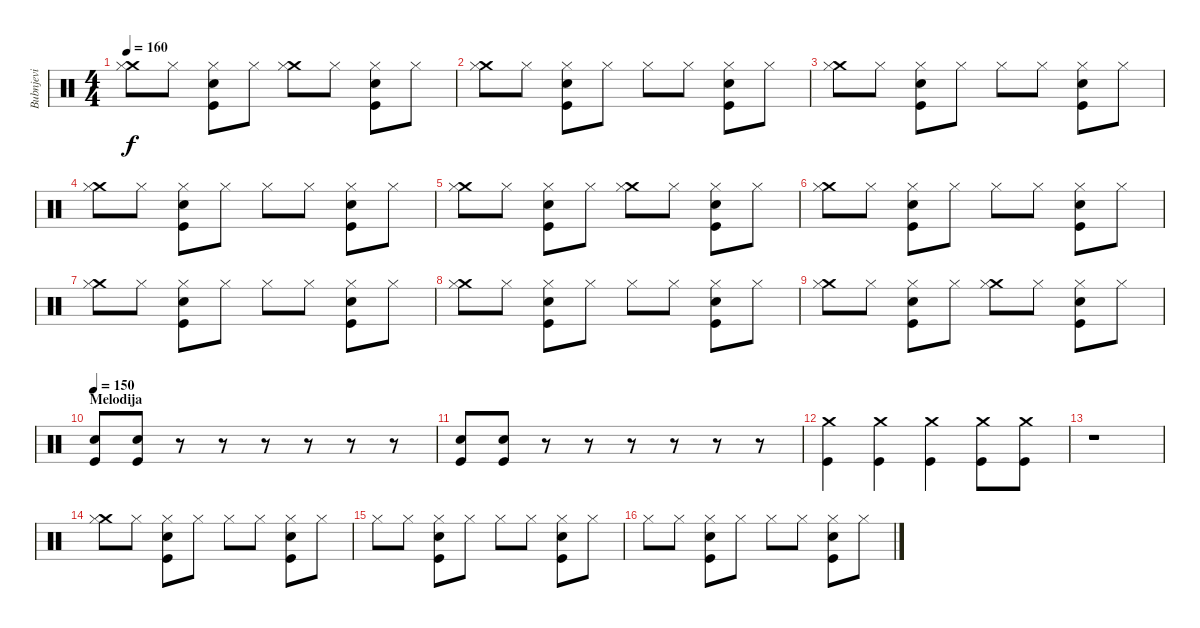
\track ("Bubnjevi" "Bubnjevi") {instrument percussion}
\staff {score}
\articulation defaults
\ts (4 4)
\tempo 160
\clef neutral
\ks c
("Crash medium (hit)" "Hi-Hat (closed)").8{dy f} "Hi-Hat (closed)".8 ("Snare (hit) 2" "Hi-Hat (closed)" "Kick (hit)").8 "Hi-Hat (closed)".8 ("Crash medium (hit)" "Hi-Hat (closed)").8 "Hi-Hat (closed)".8 ("Snare (hit) 2" "Hi-Hat (closed)" "Kick (hit)").8 "Hi-Hat (closed)".8 |
("Crash medium (hit)" "Hi-Hat (closed)").8 "Hi-Hat (closed)".8 ("Snare (hit) 2" "Hi-Hat (closed)" "Kick (hit)").8 "Hi-Hat (closed)".8 "Hi-Hat (closed)".8 "Hi-Hat (closed)".8 ("Snare (hit) 2" "Hi-Hat (closed)" "Kick (hit)").8 "Hi-Hat (closed)".8 |
("Crash medium (hit)" "Hi-Hat (closed)").8 "Hi-Hat (closed)".8 ("Snare (hit) 2" "Hi-Hat (closed)" "Kick (hit)").8 "Hi-Hat (closed)".8 "Hi-Hat (closed)".8 "Hi-Hat (closed)".8 ("Snare (hit) 2" "Hi-Hat (closed)" "Kick (hit)").8 "Hi-Hat (closed)".8 |
("Crash medium (hit)" "Hi-Hat (closed)").8 "Hi-Hat (closed)".8 ("Snare (hit) 2" "Hi-Hat (closed)" "Kick (hit)").8 "Hi-Hat (closed)".8 "Hi-Hat (closed)".8 "Hi-Hat (closed)".8 ("Snare (hit) 2" "Hi-Hat (closed)" "Kick (hit)").8 "Hi-Hat (closed)".8 |
("Crash medium (hit)" "Hi-Hat (closed)").8 "Hi-Hat (closed)".8 ("Snare (hit) 2" "Hi-Hat (closed)" "Kick (hit)").8 "Hi-Hat (closed)".8 ("Crash medium (hit)" "Hi-Hat (closed)").8 "Hi-Hat (closed)".8 ("Snare (hit) 2" "Hi-Hat (closed)" "Kick (hit)").8 "Hi-Hat (closed)".8 |
("Crash medium (hit)" "Hi-Hat (closed)").8 "Hi-Hat (closed)".8 ("Snare (hit) 2" "Hi-Hat (closed)" "Kick (hit)").8 "Hi-Hat (closed)".8 "Hi-Hat (closed)".8 "Hi-Hat (closed)".8 ("Snare (hit) 2" "Hi-Hat (closed)" "Kick (hit)").8 "Hi-Hat (closed)".8 |
("Crash medium (hit)" "Hi-Hat (closed)").8 "Hi-Hat (closed)".8 ("Snare (hit) 2" "Hi-Hat (closed)" "Kick (hit)").8 "Hi-Hat (closed)".8 "Hi-Hat (closed)".8 "Hi-Hat (closed)".8 ("Snare (hit) 2" "Hi-Hat (closed)" "Kick (hit)").8 "Hi-Hat (closed)".8 |
("Crash medium (hit)" "Hi-Hat (closed)").8 "Hi-Hat (closed)".8 ("Snare (hit) 2" "Hi-Hat (closed)" "Kick (hit)").8 "Hi-Hat (closed)".8 "Hi-Hat (closed)".8 "Hi-Hat (closed)".8 ("Snare (hit) 2" "Hi-Hat (closed)" "Kick (hit)").8 "Hi-Hat (closed)".8 |
("Crash medium (hit)" "Hi-Hat (closed)").8 "Hi-Hat (closed)".8 ("Snare (hit) 2" "Hi-Hat (closed)" "Kick (hit)").8 "Hi-Hat (closed)".8 ("Crash medium (hit)" "Hi-Hat (closed)").8 "Hi-Hat (closed)".8 ("Snare (hit) 2" "Hi-Hat (closed)" "Kick (hit)").8 "Hi-Hat (closed)".8 |
\section ("" "Melodija")
\tempo 150
("Snare (hit) 2" "Kick (hit)").8 ("Snare (hit) 2" "Kick (hit)").8 r.8 r.8 r.8 r.8 r.8 r.8 |
("Snare (hit) 2" "Kick (hit)").8 ("Snare (hit) 2" "Kick (hit)").8 r.8 r.8 r.8 r.8 r.8 r.8 |
("Crash medium (hit)" "Kick (hit)").4 ("Crash medium (hit)" "Kick (hit)").4 ("Crash medium (hit)" "Kick (hit)").4 ("Crash medium (hit)" "Kick (hit)").8 ("Crash medium (hit)" "Kick (hit)").8 |
r.1 |
("Crash medium (hit)" "Hi-Hat (closed)").8 "Hi-Hat (closed)".8 ("Snare (hit) 2" "Hi-Hat (closed)" "Kick (hit)").8 "Hi-Hat (closed)".8 "Hi-Hat (closed)".8 "Hi-Hat (closed)".8 ("Snare (hit) 2" "Hi-Hat (closed)" "Kick (hit)").8 "Hi-Hat (closed)".8 |
"Hi-Hat (closed)".8 "Hi-Hat (closed)".8 ("Snare (hit) 2" "Hi-Hat (closed)" "Kick (hit)").8 "Hi-Hat (closed)".8 "Hi-Hat (closed)".8 "Hi-Hat (closed)".8 ("Snare (hit) 2" "Hi-Hat (closed)" "Kick (hit)").8 "Hi-Hat (closed)".8 |
"Hi-Hat (closed)".8 "Hi-Hat (closed)".8 ("Snare (hit) 2" "Hi-Hat (closed)" "Kick (hit)").8 "Hi-Hat (closed)".8 "Hi-Hat (closed)".8 "Hi-Hat (closed)".8 ("Snare (hit) 2" "Hi-Hat (closed)" "Kick (hit)").8 "Hi-Hat (closed)".8
